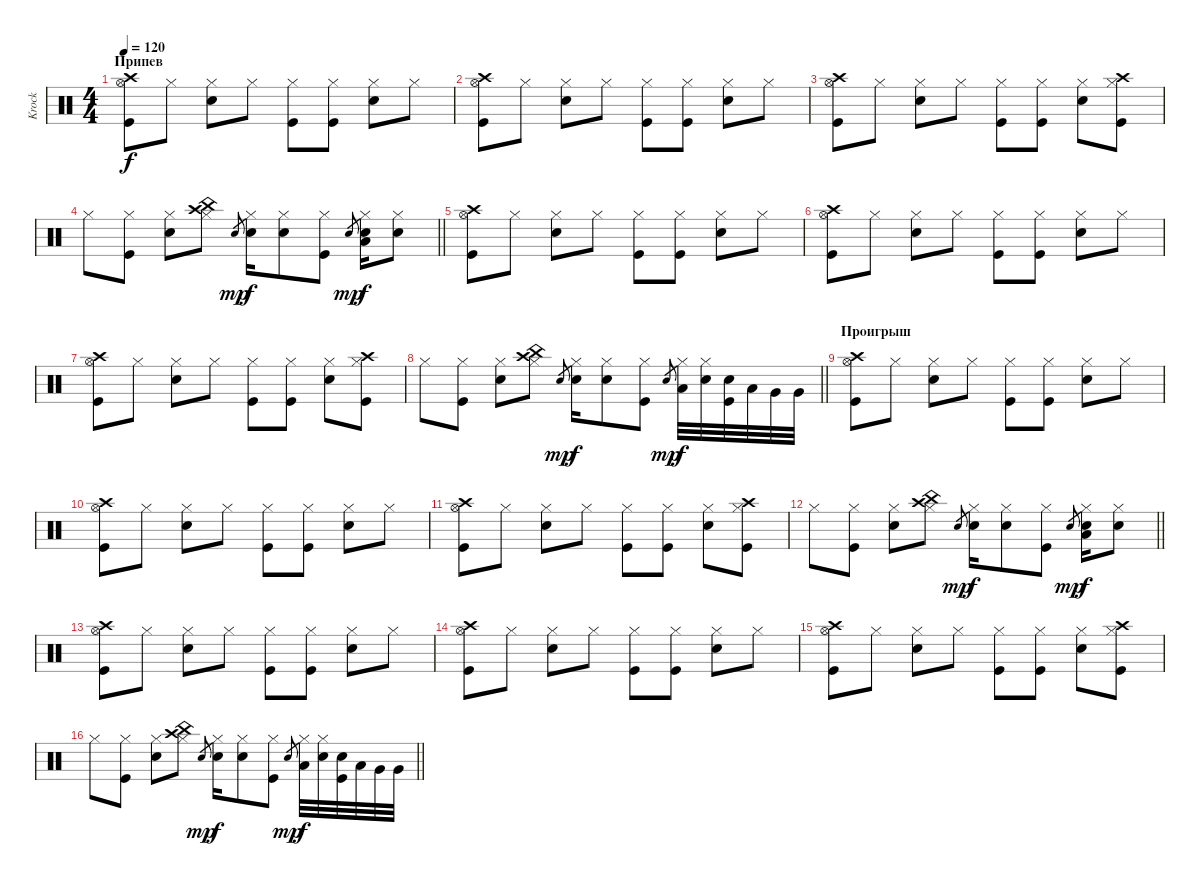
\track ("Krock" "Krock") {instrument percussion}
\staff {score}
\articulation defaults
\ts (4 4)
\section ("" "Припев")
\tempo 120
\clef neutral
\ks c
("Hi-Hat (open)" "Crash high (hit)" "Kick (hit)").8{dy f} "Hi-Hat (closed)".8 ("Hi-Hat (closed)" "Snare (hit) 2").8 "Hi-Hat (closed)".8 ("Hi-Hat (closed)" "Kick (hit)").8 ("Hi-Hat (closed)" "Kick (hit)").8 ("Hi-Hat (closed)" "Snare (hit) 2").8 "Hi-Hat (closed)".8 |
("Hi-Hat (open)" "Crash high (hit)" "Kick (hit)").8 "Hi-Hat (closed)".8 ("Hi-Hat (closed)" "Snare (hit) 2").8 "Hi-Hat (closed)".8 ("Hi-Hat (closed)" "Kick (hit)").8 ("Hi-Hat (closed)" "Kick (hit)").8 ("Hi-Hat (closed)" "Snare (hit) 2").8 "Hi-Hat (closed)".8 |
("Hi-Hat (open)" "Crash high (hit)" "Kick (hit)").8 "Hi-Hat (closed)".8 ("Hi-Hat (closed)" "Snare (hit) 2").8 "Hi-Hat (closed)".8 ("Hi-Hat (closed)" "Kick (hit)").8 ("Hi-Hat (closed)" "Kick (hit)").8 ("Hi-Hat (closed)" "Snare (hit) 2").8 ("Crash high (hit)" "Hi-Hat (closed)" "Kick (hit)").8 |
\barLineRight lightlight "Hi-Hat (closed)".8
("Hi-Hat (closed)" "Kick (hit)").8 ("Hi-Hat (closed)" "Snare (hit) 2").8 ("China (hit)" "Crash high (hit)" "Hi-Hat (closed)").8 "Snare (hit) 2".8{gr dy mp} ("Hi-Hat (closed)" "Snare (hit) 2").16{dy f} ("Hi-Hat (closed)" "Snare (hit) 2").8 ("Hi-Hat (closed)" "Kick (hit)").8 "Snare (hit) 2".8{gr dy mp} ("Hi-Hat (closed)" "Snare (hit) 2" "Low Floor Tom (hit)").16{dy f} ("Hi-Hat (closed)" "Snare (hit) 2").8 |
("Hi-Hat (open)" "Crash high (hit)" "Kick (hit)").8 "Hi-Hat (closed)".8 ("Hi-Hat (closed)" "Snare (hit) 2").8 "Hi-Hat (closed)".8 ("Hi-Hat (closed)" "Kick (hit)").8 ("Hi-Hat (closed)" "Kick (hit)").8 ("Hi-Hat (closed)" "Snare (hit) 2").8 "Hi-Hat (closed)".8 |
("Hi-Hat (open)" "Crash high (hit)" "Kick (hit)").8 "Hi-Hat (closed)".8 ("Hi-Hat (closed)" "Snare (hit) 2").8 "Hi-Hat (closed)".8 ("Hi-Hat (closed)" "Kick (hit)").8 ("Hi-Hat (closed)" "Kick (hit)").8 ("Hi-Hat (closed)" "Snare (hit) 2").8 "Hi-Hat (closed)".8 |
("Hi-Hat (open)" "Crash high (hit)" "Kick (hit)").8 "Hi-Hat (closed)".8 ("Hi-Hat (closed)" "Snare (hit) 2").8 "Hi-Hat (closed)".8 ("Hi-Hat (closed)" "Kick (hit)").8 ("Hi-Hat (closed)" "Kick (hit)").8 ("Hi-Hat (closed)" "Snare (hit) 2").8 ("Crash high (hit)" "Hi-Hat (closed)" "Kick (hit)").8 |
\barLineRight lightlight "Hi-Hat (closed)".8
("Hi-Hat (closed)" "Kick (hit)").8 ("Hi-Hat (closed)" "Snare (hit) 2").8 ("China (hit)" "Crash high (hit)" "Hi-Hat (closed)").8 "Snare (hit) 2".8{gr dy mp} ("Hi-Hat (closed)" "Snare (hit) 2").16{dy f} ("Hi-Hat (closed)" "Snare (hit) 2").8 ("Hi-Hat (closed)" "Kick (hit)").8 "Snare (hit) 2".8{gr dy mp} ("Hi-Hat (closed)" "Low Floor Tom (hit)").32{dy f} ("Hi-Hat (closed)" "Snare (hit) 2").32 ("Snare (hit) 2" "Kick (hit)").32 "Low Tom (hit)".32 "Very Low Tom (hit)".32 "Very Low Tom (hit)".32 |
\section ("" "Проигрыш")
("Hi-Hat (open)" "Crash high (hit)" "Kick (hit)").8 "Hi-Hat (closed)".8 ("Hi-Hat (closed)" "Snare (hit) 2").8 "Hi-Hat (closed)".8 ("Hi-Hat (closed)" "Kick (hit)").8 ("Hi-Hat (closed)" "Kick (hit)").8 ("Hi-Hat (closed)" "Snare (hit) 2").8 "Hi-Hat (closed)".8 |
("Hi-Hat (open)" "Crash high (hit)" "Kick (hit)").8 "Hi-Hat (closed)".8 ("Hi-Hat (closed)" "Snare (hit) 2").8 "Hi-Hat (closed)".8 ("Hi-Hat (closed)" "Kick (hit)").8 ("Hi-Hat (closed)" "Kick (hit)").8 ("Hi-Hat (closed)" "Snare (hit) 2").8 "Hi-Hat (closed)".8 |
("Hi-Hat (open)" "Crash high (hit)" "Kick (hit)").8 "Hi-Hat (closed)".8 ("Hi-Hat (closed)" "Snare (hit) 2").8 "Hi-Hat (closed)".8 ("Hi-Hat (closed)" "Kick (hit)").8 ("Hi-Hat (closed)" "Kick (hit)").8 ("Hi-Hat (closed)" "Snare (hit) 2").8 ("Crash high (hit)" "Hi-Hat (closed)" "Kick (hit)").8 |
\barLineRight lightlight "Hi-Hat (closed)".8
("Hi-Hat (closed)" "Kick (hit)").8 ("Hi-Hat (closed)" "Snare (hit) 2").8 ("China (hit)" "Crash high (hit)" "Hi-Hat (closed)").8 "Snare (hit) 2".8{gr dy mp} ("Hi-Hat (closed)" "Snare (hit) 2").16{dy f} ("Hi-Hat (closed)" "Snare (hit) 2").8 ("Hi-Hat (closed)" "Kick (hit)").8 "Snare (hit) 2".8{gr dy mp} ("Hi-Hat (closed)" "Snare (hit) 2" "Low Floor Tom (hit)").16{dy f} ("Hi-Hat (closed)" "Snare (hit) 2").8 |
("Hi-Hat (open)" "Crash high (hit)" "Kick (hit)").8 "Hi-Hat (closed)".8 ("Hi-Hat (closed)" "Snare (hit) 2").8 "Hi-Hat (closed)".8 ("Hi-Hat (closed)" "Kick (hit)").8 ("Hi-Hat (closed)" "Kick (hit)").8 ("Hi-Hat (closed)" "Snare (hit) 2").8 "Hi-Hat (closed)".8 |
("Hi-Hat (open)" "Crash high (hit)" "Kick (hit)").8 "Hi-Hat (closed)".8 ("Hi-Hat (closed)" "Snare (hit) 2").8 "Hi-Hat (closed)".8 ("Hi-Hat (closed)" "Kick (hit)").8 ("Hi-Hat (closed)" "Kick (hit)").8 ("Hi-Hat (closed)" "Snare (hit) 2").8 "Hi-Hat (closed)".8 |
("Hi-Hat (open)" "Crash high (hit)" "Kick (hit)").8 "Hi-Hat (closed)".8 ("Hi-Hat (closed)" "Snare (hit) 2").8 "Hi-Hat (closed)".8 ("Hi-Hat (closed)" "Kick (hit)").8 ("Hi-Hat (closed)" "Kick (hit)").8 ("Hi-Hat (closed)" "Snare (hit) 2").8 ("Crash high (hit)" "Hi-Hat (closed)" "Kick (hit)").8 |
\barLineRight lightlight "Hi-Hat (closed)".8
("Hi-Hat (closed)" "Kick (hit)").8 ("Hi-Hat (closed)" "Snare (hit) 2").8 ("China (hit)" "Crash high (hit)" "Hi-Hat (closed)").8 "Snare (hit) 2".8{gr dy mp} ("Hi-Hat (closed)" "Snare (hit) 2").16{dy f} ("Hi-Hat (closed)" "Snare (hit) 2").8 ("Hi-Hat (closed)" "Kick (hit)").8 "Snare (hit) 2".8{gr dy mp} ("Hi-Hat (closed)" "Low Floor Tom (hit)").32{dy f} ("Hi-Hat (closed)" "Snare (hit) 2").32 ("Snare (hit) 2" "Kick (hit)").32 "Low Tom (hit)".32 "Very Low Tom (hit)".32 "Very Low Tom (hit)".32
